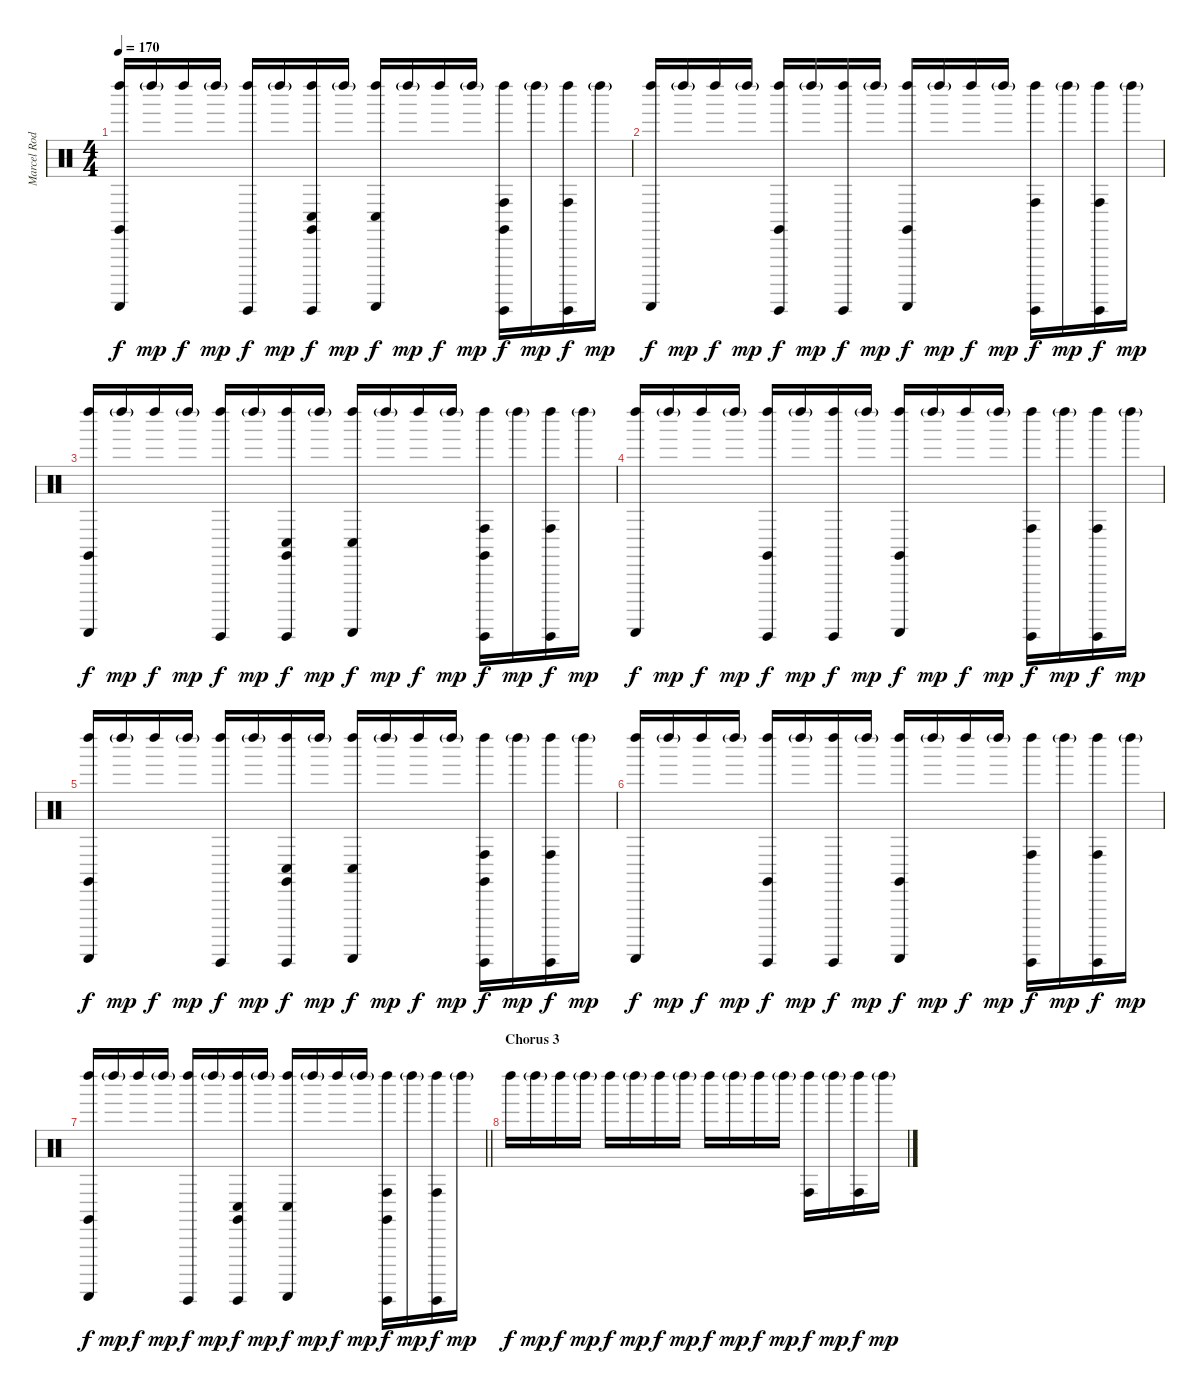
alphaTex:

\track ("Marcel Rodriguez-Lopez/Adrian Terrazas [" "Marcel Rod") {instrument percussion}
\staff {score}
\articulation defaults
\ts (4 4)
\tempo 170
\clef neutral
\ks c
("Guiro (scrap-return)" "Left Maraca (hit)" "Claves (hit)").16{dy f} "Left Maraca (hit)"{g}.16{dy mp} "Left Maraca (hit)".16{dy f} "Left Maraca (hit)"{g}.16{dy mp} ("Guiro (hit)" "Left Maraca (hit)").16{dy f} "Left Maraca (hit)"{g}.16{dy mp} ("Guiro (hit)" "Left Maraca (hit)" "Claves (hit)" "Conga low (hit)").16{dy f} "Left Maraca (hit)"{g}.16{dy mp} ("Guiro (scrap-return)" "Left Maraca (hit)" "Conga low (hit)").16{dy f} "Left Maraca (hit)"{g}.16{dy mp} "Left Maraca (hit)".16{dy f} "Left Maraca (hit)"{g}.16{dy mp} ("Guiro (hit)" "Left Maraca (hit)" "Claves (hit)" "Conga high (hit)").16{dy f} "Left Maraca (hit)"{g}.16{dy mp} ("Guiro (hit)" "Left Maraca (hit)" "Conga high (hit)").16{dy f} "Left Maraca (hit)"{g}.16{dy mp} |
("Guiro (scrap-return)" "Left Maraca (hit)").16{dy f} "Left Maraca (hit)"{g}.16{dy mp} "Left Maraca (hit)".16{dy f} "Left Maraca (hit)"{g}.16{dy mp} ("Guiro (hit)" "Left Maraca (hit)" "Claves (hit)").16{dy f} "Left Maraca (hit)"{g}.16{dy mp} ("Guiro (hit)" "Left Maraca (hit)").16{dy f} "Left Maraca (hit)"{g}.16{dy mp} ("Guiro (scrap-return)" "Left Maraca (hit)" "Claves (hit)").16{dy f} "Left Maraca (hit)"{g}.16{dy mp} "Left Maraca (hit)".16{dy f} "Left Maraca (hit)"{g}.16{dy mp} ("Guiro (hit)" "Left Maraca (hit)" "Conga high (hit)").16{dy f} "Left Maraca (hit)"{g}.16{dy mp} ("Guiro (hit)" "Left Maraca (hit)" "Conga high (hit)").16{dy f} "Left Maraca (hit)"{g}.16{dy mp} |
("Guiro (scrap-return)" "Left Maraca (hit)" "Claves (hit)").16{dy f} "Left Maraca (hit)"{g}.16{dy mp} "Left Maraca (hit)".16{dy f} "Left Maraca (hit)"{g}.16{dy mp} ("Guiro (hit)" "Left Maraca (hit)").16{dy f} "Left Maraca (hit)"{g}.16{dy mp} ("Guiro (hit)" "Left Maraca (hit)" "Claves (hit)" "Conga low (hit)").16{dy f} "Left Maraca (hit)"{g}.16{dy mp} ("Guiro (scrap-return)" "Left Maraca (hit)" "Conga low (hit)").16{dy f} "Left Maraca (hit)"{g}.16{dy mp} "Left Maraca (hit)".16{dy f} "Left Maraca (hit)"{g}.16{dy mp} ("Guiro (hit)" "Left Maraca (hit)" "Claves (hit)" "Conga high (hit)").16{dy f} "Left Maraca (hit)"{g}.16{dy mp} ("Guiro (hit)" "Left Maraca (hit)" "Conga high (hit)").16{dy f} "Left Maraca (hit)"{g}.16{dy mp} |
("Guiro (scrap-return)" "Left Maraca (hit)").16{dy f} "Left Maraca (hit)"{g}.16{dy mp} "Left Maraca (hit)".16{dy f} "Left Maraca (hit)"{g}.16{dy mp} ("Guiro (hit)" "Left Maraca (hit)" "Claves (hit)").16{dy f} "Left Maraca (hit)"{g}.16{dy mp} ("Guiro (hit)" "Left Maraca (hit)").16{dy f} "Left Maraca (hit)"{g}.16{dy mp} ("Guiro (scrap-return)" "Left Maraca (hit)" "Claves (hit)").16{dy f} "Left Maraca (hit)"{g}.16{dy mp} "Left Maraca (hit)".16{dy f} "Left Maraca (hit)"{g}.16{dy mp} ("Guiro (hit)" "Left Maraca (hit)" "Conga high (hit)").16{dy f} "Left Maraca (hit)"{g}.16{dy mp} ("Guiro (hit)" "Left Maraca (hit)" "Conga high (hit)").16{dy f} "Left Maraca (hit)"{g}.16{dy mp} |
("Guiro (scrap-return)" "Left Maraca (hit)" "Claves (hit)").16{dy f} "Left Maraca (hit)"{g}.16{dy mp} "Left Maraca (hit)".16{dy f} "Left Maraca (hit)"{g}.16{dy mp} ("Guiro (hit)" "Left Maraca (hit)").16{dy f} "Left Maraca (hit)"{g}.16{dy mp} ("Guiro (hit)" "Left Maraca (hit)" "Claves (hit)" "Conga low (hit)").16{dy f} "Left Maraca (hit)"{g}.16{dy mp} ("Guiro (scrap-return)" "Left Maraca (hit)" "Conga low (hit)").16{dy f} "Left Maraca (hit)"{g}.16{dy mp} "Left Maraca (hit)".16{dy f} "Left Maraca (hit)"{g}.16{dy mp} ("Guiro (hit)" "Left Maraca (hit)" "Claves (hit)" "Conga high (hit)").16{dy f} "Left Maraca (hit)"{g}.16{dy mp} ("Guiro (hit)" "Left Maraca (hit)" "Conga high (hit)").16{dy f} "Left Maraca (hit)"{g}.16{dy mp} |
("Guiro (scrap-return)" "Left Maraca (hit)").16{dy f} "Left Maraca (hit)"{g}.16{dy mp} "Left Maraca (hit)".16{dy f} "Left Maraca (hit)"{g}.16{dy mp} ("Guiro (hit)" "Left Maraca (hit)" "Claves (hit)").16{dy f} "Left Maraca (hit)"{g}.16{dy mp} ("Guiro (hit)" "Left Maraca (hit)").16{dy f} "Left Maraca (hit)"{g}.16{dy mp} ("Guiro (scrap-return)" "Left Maraca (hit)" "Claves (hit)").16{dy f} "Left Maraca (hit)"{g}.16{dy mp} "Left Maraca (hit)".16{dy f} "Left Maraca (hit)"{g}.16{dy mp} ("Guiro (hit)" "Left Maraca (hit)" "Conga high (hit)").16{dy f} "Left Maraca (hit)"{g}.16{dy mp} ("Guiro (hit)" "Left Maraca (hit)" "Conga high (hit)").16{dy f} "Left Maraca (hit)"{g}.16{dy mp} |
\barLineRight lightlight
("Guiro (scrap-return)" "Left Maraca (hit)" "Claves (hit)").16{dy f} "Left Maraca (hit)"{g}.16{dy mp} "Left Maraca (hit)".16{dy f} "Left Maraca (hit)"{g}.16{dy mp} ("Guiro (hit)" "Left Maraca (hit)").16{dy f} "Left Maraca (hit)"{g}.16{dy mp} ("Guiro (hit)" "Left Maraca (hit)" "Claves (hit)" "Conga low (hit)").16{dy f} "Left Maraca (hit)"{g}.16{dy mp} ("Guiro (scrap-return)" "Left Maraca (hit)" "Conga low (hit)").16{dy f} "Left Maraca (hit)"{g}.16{dy mp} "Left Maraca (hit)".16{dy f} "Left Maraca (hit)"{g}.16{dy mp} ("Guiro (hit)" "Left Maraca (hit)" "Claves (hit)" "Conga high (hit)").16{dy f} "Left Maraca (hit)"{g}.16{dy mp} ("Guiro (hit)" "Left Maraca (hit)" "Conga high (hit)").16{dy f} "Left Maraca (hit)"{g}.16{dy mp} |
\section ("" "Chorus 3")
"Left Maraca (hit)".16{dy f} "Left Maraca (hit)"{g}.16{dy mp} "Left Maraca (hit)".16{dy f} "Left Maraca (hit)"{g}.16{dy mp} "Left Maraca (hit)".16{dy f} "Left Maraca (hit)"{g}.16{dy mp} "Left Maraca (hit)".16{dy f} "Left Maraca (hit)"{g}.16{dy mp} "Left Maraca (hit)".16{dy f} "Left Maraca (hit)"{g}.16{dy mp} "Left Maraca (hit)".16{dy f} "Left Maraca (hit)"{g}.16{dy mp} ("Left Maraca (hit)" "Conga high (hit)").16{dy f} "Left Maraca (hit)"{g}.16{dy mp} ("Left Maraca (hit)" "Conga high (hit)").16{dy f} "Left Maraca (hit)"{g}.16{dy mp}
